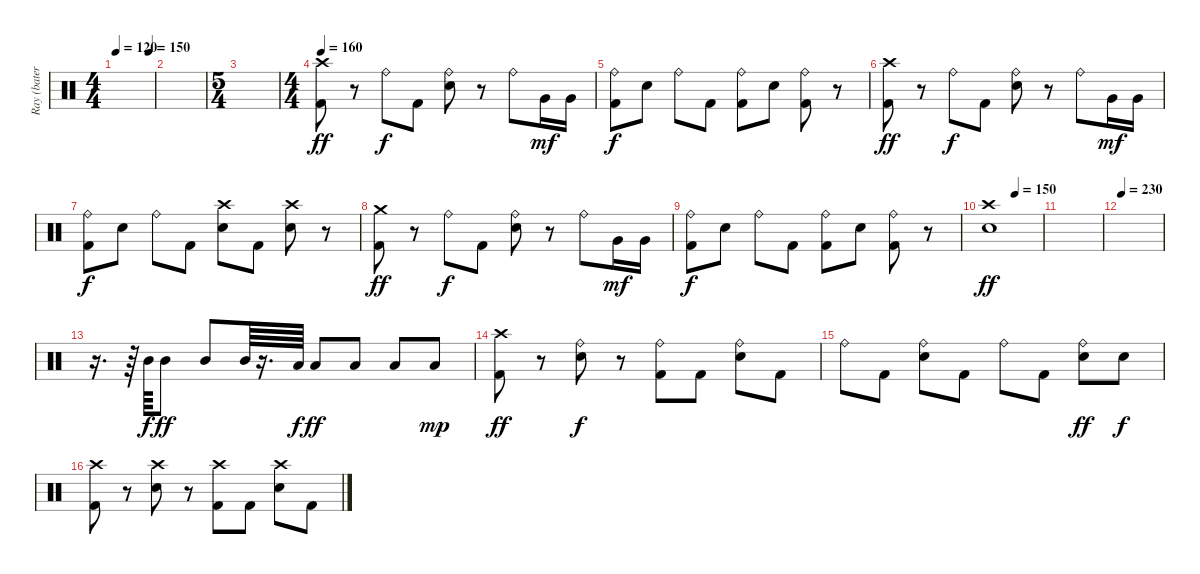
\track ("Ray (batería)" "Ray (bater") {instrument percussion}
\staff {score}
\articulation defaults
\ts (4 4)
\tempo 120
\tempo (150 0.875)
\clef neutral
\ks c
|
|
\ts (5 4)
|
\ts (4 4)
\tempo 160
("Crash high (hit)" "Kick (hit) 2").8{dy ff} r.8 "Ride (bell)".8{dy f} "Kick (hit) 2".8 ("Ride (bell)" "Snare (hit) 2").8 r.8 "Ride (bell)".8 "Very Low Tom (hit)".16{dy mf} "Very Low Tom (hit)".16 |
("Ride (bell)" "Kick (hit) 2").8{dy f} "Snare (hit) 2".8 "Ride (bell)".8 "Kick (hit) 2".8 ("Ride (bell)" "Kick (hit) 2").8 "Snare (hit) 2".8 ("Ride (bell)" "Kick (hit) 2").8 r.8 |
("Crash high (hit)" "Kick (hit) 2").8{dy ff} r.8 "Ride (bell)".8{dy f} "Kick (hit) 2".8 ("Ride (bell)" "Snare (hit) 2").8 r.8 "Ride (bell)".8 "Very Low Tom (hit)".16{dy mf} "Very Low Tom (hit)".16 |
("Ride (bell)" "Kick (hit) 2").8{dy f} "Snare (hit) 2".8 "Ride (bell)".8 "Kick (hit) 2".8 ("Crash high (hit)" "Snare (hit) 2").8 "Kick (hit) 2".8 ("Crash high (hit)" "Snare (hit) 2").8 r.8 |
("Crash medium (hit)" "Kick (hit) 2").8{dy ff} r.8 "Ride (bell)".8{dy f} "Kick (hit) 2".8 ("Ride (bell)" "Snare (hit) 2").8 r.8 "Ride (bell)".8 "Very Low Tom (hit)".16{dy mf} "Very Low Tom (hit)".16 |
("Ride (bell)" "Kick (hit) 2").8{dy f} "Snare (hit) 2".8 "Ride (bell)".8 "Kick (hit) 2".8 ("Ride (bell)" "Kick (hit) 2").8 "Snare (hit) 2".8 ("Ride (bell)" "Kick (hit) 2").8 r.8 |
\tempo (150 0.5)
("Crash high (hit)" "Snare (hit) 2").1{dy ff} |
|
\tempo 230
|
r.16{d} r.64 "Mid Tom (hit)".64{dy f} "Mid Tom (hit)".8{dy ff} "Mid Tom (hit)".8 "Mid Tom (hit)".64 r.16{d} "Low Tom (hit)".64{dy f} "Low Tom (hit)".8{dy ff} "Low Tom (hit)".8 "Low Tom (hit)".8 "Low Tom (hit)".8{dy mp} |
("Crash high (hit)" "Kick (hit) 2").8{dy ff} r.8 ("Ride (bell)" "Snare (hit) 2").8{dy f} r.8 ("Ride (bell)" "Kick (hit) 2").8 "Kick (hit) 2".8 ("Ride (bell)" "Snare (hit) 2").8 "Kick (hit) 2".8 |
"Ride (bell)".8 "Kick (hit) 2".8 ("Ride (bell)" "Snare (hit) 2").8 "Kick (hit) 2".8 "Ride (bell)".8 "Kick (hit) 2".8 ("Ride (bell)" "Snare (hit) 2").8{dy ff} "Snare (hit) 2".8{dy f} |
("Crash high (hit)" "Kick (hit) 2").8 r.8 ("Crash high (hit)" "Snare (hit) 2").8 r.8 ("Crash high (hit)" "Kick (hit) 2").8 "Kick (hit) 2".8 ("Crash high (hit)" "Snare (hit) 2").8 "Kick (hit) 2".8
